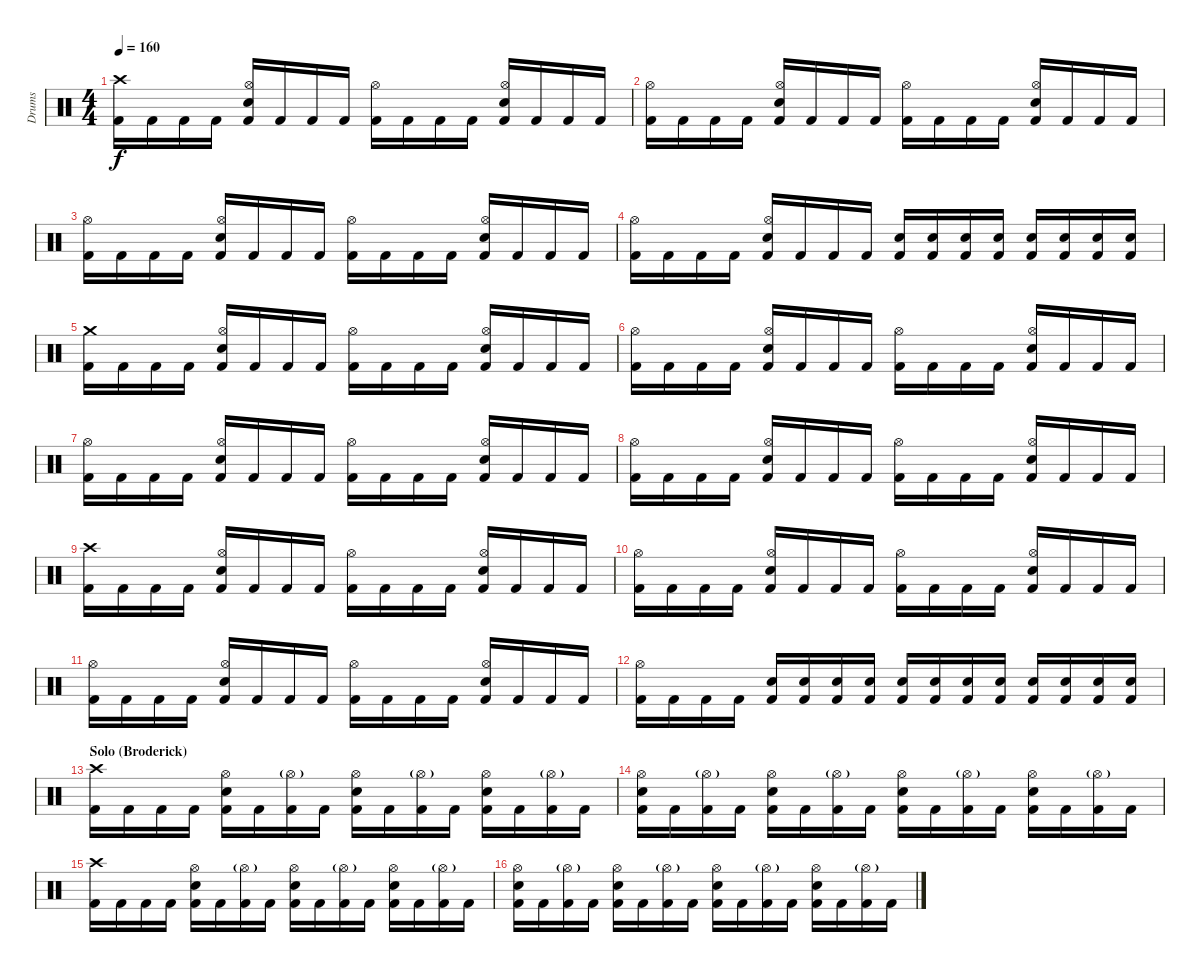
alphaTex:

\track ("Drums" "Drums") {instrument percussion}
\staff {score}
\articulation defaults
\ts (4 4)
\tempo 160
\clef neutral
\ks c
("Crash high (hit)" "Kick (hit) 2").16{dy f} "Kick (hit) 2".16 "Kick (hit) 2".16 "Kick (hit) 2".16 ("Hi-Hat (open)" "Snare (hit) 2" "Kick (hit) 2").16 "Kick (hit) 2".16 "Kick (hit) 2".16 "Kick (hit) 2".16 ("Hi-Hat (open)" "Kick (hit) 2").16 "Kick (hit) 2".16 "Kick (hit) 2".16 "Kick (hit) 2".16 ("Hi-Hat (open)" "Snare (hit) 2" "Kick (hit) 2").16 "Kick (hit) 2".16 "Kick (hit) 2".16 "Kick (hit) 2".16 |
("Hi-Hat (open)" "Kick (hit) 2").16 "Kick (hit) 2".16 "Kick (hit) 2".16 "Kick (hit) 2".16 ("Hi-Hat (open)" "Snare (hit) 2" "Kick (hit) 2").16 "Kick (hit) 2".16 "Kick (hit) 2".16 "Kick (hit) 2".16 ("Hi-Hat (open)" "Kick (hit) 2").16 "Kick (hit) 2".16 "Kick (hit) 2".16 "Kick (hit) 2".16 ("Hi-Hat (open)" "Snare (hit) 2" "Kick (hit) 2").16 "Kick (hit) 2".16 "Kick (hit) 2".16 "Kick (hit) 2".16 |
("Hi-Hat (open)" "Kick (hit) 2").16 "Kick (hit) 2".16 "Kick (hit) 2".16 "Kick (hit) 2".16 ("Hi-Hat (open)" "Snare (hit) 2" "Kick (hit) 2").16 "Kick (hit) 2".16 "Kick (hit) 2".16 "Kick (hit) 2".16 ("Hi-Hat (open)" "Kick (hit) 2").16 "Kick (hit) 2".16 "Kick (hit) 2".16 "Kick (hit) 2".16 ("Hi-Hat (open)" "Snare (hit) 2" "Kick (hit) 2").16 "Kick (hit) 2".16 "Kick (hit) 2".16 "Kick (hit) 2".16 |
("Hi-Hat (open)" "Kick (hit) 2").16 "Kick (hit) 2".16 "Kick (hit) 2".16 "Kick (hit) 2".16 ("Hi-Hat (open)" "Snare (hit) 2" "Kick (hit) 2").16 "Kick (hit) 2".16 "Kick (hit) 2".16 "Kick (hit) 2".16 ("Snare (hit) 2" "Kick (hit) 2").16 ("Snare (hit) 2" "Kick (hit) 2").16 ("Snare (hit) 2" "Kick (hit) 2").16 ("Snare (hit) 2" "Kick (hit) 2").16 ("Snare (hit) 2" "Kick (hit) 2").16 ("Snare (hit) 2" "Kick (hit) 2").16 ("Snare (hit) 2" "Kick (hit) 2").16 ("Snare (hit) 2" "Kick (hit) 2").16 |
("Crash medium (hit)" "Kick (hit) 2").16 "Kick (hit) 2".16 "Kick (hit) 2".16 "Kick (hit) 2".16 ("Hi-Hat (open)" "Snare (hit) 2" "Kick (hit) 2").16 "Kick (hit) 2".16 "Kick (hit) 2".16 "Kick (hit) 2".16 ("Hi-Hat (open)" "Kick (hit) 2").16 "Kick (hit) 2".16 "Kick (hit) 2".16 "Kick (hit) 2".16 ("Hi-Hat (open)" "Snare (hit) 2" "Kick (hit) 2").16 "Kick (hit) 2".16 "Kick (hit) 2".16 "Kick (hit) 2".16 |
("Hi-Hat (open)" "Kick (hit) 2").16 "Kick (hit) 2".16 "Kick (hit) 2".16 "Kick (hit) 2".16 ("Hi-Hat (open)" "Snare (hit) 2" "Kick (hit) 2").16 "Kick (hit) 2".16 "Kick (hit) 2".16 "Kick (hit) 2".16 ("Hi-Hat (open)" "Kick (hit) 2").16 "Kick (hit) 2".16 "Kick (hit) 2".16 "Kick (hit) 2".16 ("Hi-Hat (open)" "Snare (hit) 2" "Kick (hit) 2").16 "Kick (hit) 2".16 "Kick (hit) 2".16 "Kick (hit) 2".16 |
("Hi-Hat (open)" "Kick (hit) 2").16 "Kick (hit) 2".16 "Kick (hit) 2".16 "Kick (hit) 2".16 ("Hi-Hat (open)" "Snare (hit) 2" "Kick (hit) 2").16 "Kick (hit) 2".16 "Kick (hit) 2".16 "Kick (hit) 2".16 ("Hi-Hat (open)" "Kick (hit) 2").16 "Kick (hit) 2".16 "Kick (hit) 2".16 "Kick (hit) 2".16 ("Hi-Hat (open)" "Snare (hit) 2" "Kick (hit) 2").16 "Kick (hit) 2".16 "Kick (hit) 2".16 "Kick (hit) 2".16 |
("Hi-Hat (open)" "Kick (hit) 2").16 "Kick (hit) 2".16 "Kick (hit) 2".16 "Kick (hit) 2".16 ("Hi-Hat (open)" "Snare (hit) 2" "Kick (hit) 2").16 "Kick (hit) 2".16 "Kick (hit) 2".16 "Kick (hit) 2".16 ("Hi-Hat (open)" "Kick (hit) 2").16 "Kick (hit) 2".16 "Kick (hit) 2".16 "Kick (hit) 2".16 ("Hi-Hat (open)" "Snare (hit) 2" "Kick (hit) 2").16 "Kick (hit) 2".16 "Kick (hit) 2".16 "Kick (hit) 2".16 |
("Crash high (hit)" "Kick (hit) 2").16 "Kick (hit) 2".16 "Kick (hit) 2".16 "Kick (hit) 2".16 ("Hi-Hat (open)" "Snare (hit) 2" "Kick (hit) 2").16 "Kick (hit) 2".16 "Kick (hit) 2".16 "Kick (hit) 2".16 ("Hi-Hat (open)" "Kick (hit) 2").16 "Kick (hit) 2".16 "Kick (hit) 2".16 "Kick (hit) 2".16 ("Hi-Hat (open)" "Snare (hit) 2" "Kick (hit) 2").16 "Kick (hit) 2".16 "Kick (hit) 2".16 "Kick (hit) 2".16 |
("Hi-Hat (open)" "Kick (hit) 2").16 "Kick (hit) 2".16 "Kick (hit) 2".16 "Kick (hit) 2".16 ("Hi-Hat (open)" "Snare (hit) 2" "Kick (hit) 2").16 "Kick (hit) 2".16 "Kick (hit) 2".16 "Kick (hit) 2".16 ("Hi-Hat (open)" "Kick (hit) 2").16 "Kick (hit) 2".16 "Kick (hit) 2".16 "Kick (hit) 2".16 ("Hi-Hat (open)" "Snare (hit) 2" "Kick (hit) 2").16 "Kick (hit) 2".16 "Kick (hit) 2".16 "Kick (hit) 2".16 |
("Hi-Hat (open)" "Kick (hit) 2").16 "Kick (hit) 2".16 "Kick (hit) 2".16 "Kick (hit) 2".16 ("Hi-Hat (open)" "Snare (hit) 2" "Kick (hit) 2").16 "Kick (hit) 2".16 "Kick (hit) 2".16 "Kick (hit) 2".16 ("Hi-Hat (open)" "Kick (hit) 2").16 "Kick (hit) 2".16 "Kick (hit) 2".16 "Kick (hit) 2".16 ("Hi-Hat (open)" "Snare (hit) 2" "Kick (hit) 2").16 "Kick (hit) 2".16 "Kick (hit) 2".16 "Kick (hit) 2".16 |
("Hi-Hat (open)" "Kick (hit) 2").16 "Kick (hit) 2".16 "Kick (hit) 2".16 "Kick (hit) 2".16 ("Snare (hit) 2" "Kick (hit) 2").16 ("Snare (hit) 2" "Kick (hit) 2").16 ("Snare (hit) 2" "Kick (hit) 2").16 ("Snare (hit) 2" "Kick (hit) 2").16 ("Snare (hit) 2" "Kick (hit) 2").16 ("Snare (hit) 2" "Kick (hit) 2").16 ("Snare (hit) 2" "Kick (hit) 2").16 ("Snare (hit) 2" "Kick (hit) 2").16 ("Snare (hit) 2" "Kick (hit) 2").16 ("Snare (hit) 2" "Kick (hit) 2").16 ("Snare (hit) 2" "Kick (hit) 2").16 ("Snare (hit) 2" "Kick (hit) 2").16 |
\section ("" "Solo (Broderick)")
("Crash high (hit)" "Kick (hit) 2").16 "Kick (hit) 2".16 "Kick (hit) 2".16 "Kick (hit) 2".16 ("Hi-Hat (open)" "Snare (hit) 2" "Kick (hit) 2").16 "Kick (hit) 2".16 ("Hi-Hat (open)"{g} "Kick (hit) 2").16 "Kick (hit) 2".16 ("Hi-Hat (open)" "Snare (hit) 2" "Kick (hit) 2").16 "Kick (hit) 2".16 ("Hi-Hat (open)"{g} "Kick (hit) 2").16 "Kick (hit) 2".16 ("Hi-Hat (open)" "Snare (hit) 2" "Kick (hit) 2").16 "Kick (hit) 2".16 ("Hi-Hat (open)"{g} "Kick (hit) 2").16 "Kick (hit) 2".16 |
("Hi-Hat (open)" "Snare (hit) 2" "Kick (hit) 2").16 "Kick (hit) 2".16 ("Hi-Hat (open)"{g} "Kick (hit) 2").16 "Kick (hit) 2".16 ("Hi-Hat (open)" "Snare (hit) 2" "Kick (hit) 2").16 "Kick (hit) 2".16 ("Hi-Hat (open)"{g} "Kick (hit) 2").16 "Kick (hit) 2".16 ("Hi-Hat (open)" "Snare (hit) 2" "Kick (hit) 2").16 "Kick (hit) 2".16 ("Hi-Hat (open)"{g} "Kick (hit) 2").16 "Kick (hit) 2".16 ("Hi-Hat (open)" "Snare (hit) 2" "Kick (hit) 2").16 "Kick (hit) 2".16 ("Hi-Hat (open)"{g} "Kick (hit) 2").16 "Kick (hit) 2".16 |
("Crash high (hit)" "Kick (hit) 2").16 "Kick (hit) 2".16 "Kick (hit) 2".16 "Kick (hit) 2".16 ("Hi-Hat (open)" "Snare (hit) 2" "Kick (hit) 2").16 "Kick (hit) 2".16 ("Hi-Hat (open)"{g} "Kick (hit) 2").16 "Kick (hit) 2".16 ("Hi-Hat (open)" "Snare (hit) 2" "Kick (hit) 2").16 "Kick (hit) 2".16 ("Hi-Hat (open)"{g} "Kick (hit) 2").16 "Kick (hit) 2".16 ("Hi-Hat (open)" "Snare (hit) 2" "Kick (hit) 2").16 "Kick (hit) 2".16 ("Hi-Hat (open)"{g} "Kick (hit) 2").16 "Kick (hit) 2".16 |
("Hi-Hat (open)" "Snare (hit) 2" "Kick (hit) 2").16 "Kick (hit) 2".16 ("Hi-Hat (open)"{g} "Kick (hit) 2").16 "Kick (hit) 2".16 ("Hi-Hat (open)" "Snare (hit) 2" "Kick (hit) 2").16 "Kick (hit) 2".16 ("Hi-Hat (open)"{g} "Kick (hit) 2").16 "Kick (hit) 2".16 ("Hi-Hat (open)" "Snare (hit) 2" "Kick (hit) 2").16 "Kick (hit) 2".16 ("Hi-Hat (open)"{g} "Kick (hit) 2").16 "Kick (hit) 2".16 ("Hi-Hat (open)" "Snare (hit) 2" "Kick (hit) 2").16 "Kick (hit) 2".16 ("Hi-Hat (open)"{g} "Kick (hit) 2").16 "Kick (hit) 2".16
